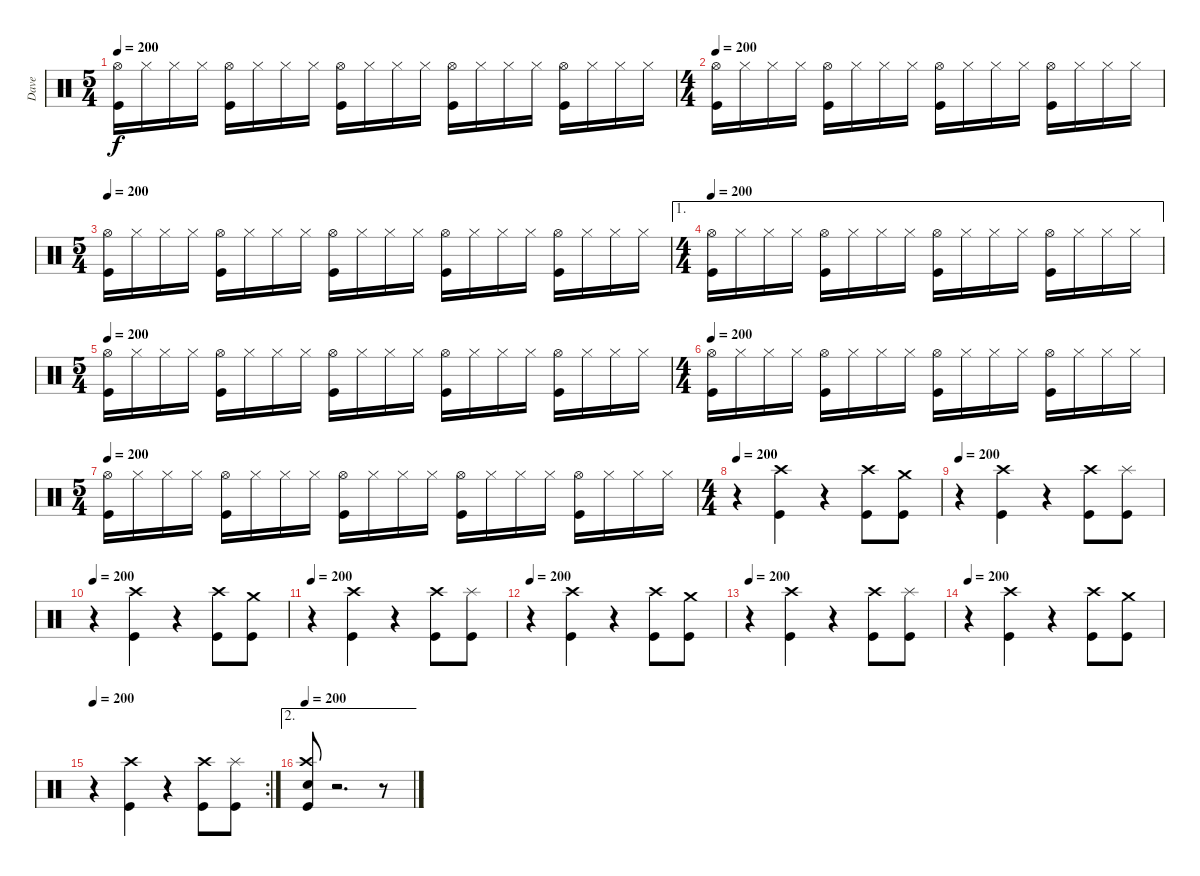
\track ("Dave" "Dave") {instrument percussion}
\staff {score}
\articulation defaults
\ts (5 4)
\tempo 200
\clef neutral
\ks c
("Hi-Hat (open)" "Kick (hit)").16{dy f} "Hi-Hat (closed)".16 "Hi-Hat (closed)".16 "Hi-Hat (closed)".16 ("Hi-Hat (open)" "Kick (hit)").16 "Hi-Hat (closed)".16 "Hi-Hat (closed)".16 "Hi-Hat (closed)".16 ("Hi-Hat (open)" "Kick (hit)").16 "Hi-Hat (closed)".16 "Hi-Hat (closed)".16 "Hi-Hat (closed)".16 ("Hi-Hat (open)" "Kick (hit)").16 "Hi-Hat (closed)".16 "Hi-Hat (closed)".16 "Hi-Hat (closed)".16 ("Hi-Hat (open)" "Kick (hit)").16 "Hi-Hat (closed)".16 "Hi-Hat (closed)".16 "Hi-Hat (closed)".16 |
\ts (4 4)
\tempo 200
("Hi-Hat (open)" "Kick (hit)").16 "Hi-Hat (closed)".16 "Hi-Hat (closed)".16 "Hi-Hat (closed)".16 ("Hi-Hat (open)" "Kick (hit)").16 "Hi-Hat (closed)".16 "Hi-Hat (closed)".16 "Hi-Hat (closed)".16 ("Hi-Hat (open)" "Kick (hit)").16 "Hi-Hat (closed)".16 "Hi-Hat (closed)".16 "Hi-Hat (closed)".16 ("Hi-Hat (open)" "Kick (hit)").16 "Hi-Hat (closed)".16 "Hi-Hat (closed)".16 "Hi-Hat (closed)".16 |
\ts (5 4)
\tempo 200
("Hi-Hat (open)" "Kick (hit)").16 "Hi-Hat (closed)".16 "Hi-Hat (closed)".16 "Hi-Hat (closed)".16 ("Hi-Hat (open)" "Kick (hit)").16 "Hi-Hat (closed)".16 "Hi-Hat (closed)".16 "Hi-Hat (closed)".16 ("Hi-Hat (open)" "Kick (hit)").16 "Hi-Hat (closed)".16 "Hi-Hat (closed)".16 "Hi-Hat (closed)".16 ("Hi-Hat (open)" "Kick (hit)").16 "Hi-Hat (closed)".16 "Hi-Hat (closed)".16 "Hi-Hat (closed)".16 ("Hi-Hat (open)" "Kick (hit)").16 "Hi-Hat (closed)".16 "Hi-Hat (closed)".16 "Hi-Hat (closed)".16 |
\ae 1
\ts (4 4)
\tempo 200
("Hi-Hat (open)" "Kick (hit)").16 "Hi-Hat (closed)".16 "Hi-Hat (closed)".16 "Hi-Hat (closed)".16 ("Hi-Hat (open)" "Kick (hit)").16 "Hi-Hat (closed)".16 "Hi-Hat (closed)".16 "Hi-Hat (closed)".16 ("Hi-Hat (open)" "Kick (hit)").16 "Hi-Hat (closed)".16 "Hi-Hat (closed)".16 "Hi-Hat (closed)".16 ("Hi-Hat (open)" "Kick (hit)").16 "Hi-Hat (closed)".16 "Hi-Hat (closed)".16 "Hi-Hat (closed)".16 |
\ts (5 4)
\tempo 200
("Hi-Hat (open)" "Kick (hit)").16 "Hi-Hat (closed)".16 "Hi-Hat (closed)".16 "Hi-Hat (closed)".16 ("Hi-Hat (open)" "Kick (hit)").16 "Hi-Hat (closed)".16 "Hi-Hat (closed)".16 "Hi-Hat (closed)".16 ("Hi-Hat (open)" "Kick (hit)").16 "Hi-Hat (closed)".16 "Hi-Hat (closed)".16 "Hi-Hat (closed)".16 ("Hi-Hat (open)" "Kick (hit)").16 "Hi-Hat (closed)".16 "Hi-Hat (closed)".16 "Hi-Hat (closed)".16 ("Hi-Hat (open)" "Kick (hit)").16 "Hi-Hat (closed)".16 "Hi-Hat (closed)".16 "Hi-Hat (closed)".16 |
\ts (4 4)
\tempo 200
("Hi-Hat (open)" "Kick (hit)").16 "Hi-Hat (closed)".16 "Hi-Hat (closed)".16 "Hi-Hat (closed)".16 ("Hi-Hat (open)" "Kick (hit)").16 "Hi-Hat (closed)".16 "Hi-Hat (closed)".16 "Hi-Hat (closed)".16 ("Hi-Hat (open)" "Kick (hit)").16 "Hi-Hat (closed)".16 "Hi-Hat (closed)".16 "Hi-Hat (closed)".16 ("Hi-Hat (open)" "Kick (hit)").16 "Hi-Hat (closed)".16 "Hi-Hat (closed)".16 "Hi-Hat (closed)".16 |
\ts (5 4)
\tempo 200
("Hi-Hat (open)" "Kick (hit)").16 "Hi-Hat (closed)".16 "Hi-Hat (closed)".16 "Hi-Hat (closed)".16 ("Hi-Hat (open)" "Kick (hit)").16 "Hi-Hat (closed)".16 "Hi-Hat (closed)".16 "Hi-Hat (closed)".16 ("Hi-Hat (open)" "Kick (hit)").16 "Hi-Hat (closed)".16 "Hi-Hat (closed)".16 "Hi-Hat (closed)".16 ("Hi-Hat (open)" "Kick (hit)").16 "Hi-Hat (closed)".16 "Hi-Hat (closed)".16 "Hi-Hat (closed)".16 ("Hi-Hat (open)" "Kick (hit)").16 "Hi-Hat (closed)".16 "Hi-Hat (closed)".16 "Hi-Hat (closed)".16 |
\ts (4 4)
\tempo 200
r.4 ("Crash high (hit)" "Kick (hit)").4 r.4 ("Crash high (hit)" "Kick (hit)").8 ("Crash medium (hit)" "Kick (hit)").8 |
\tempo 200
r.4 ("Crash high (hit)" "Kick (hit)").4 r.4 ("Crash high (hit)" "Kick (hit)").8 ("Splash (hit)" "Kick (hit)").8 |
\tempo 200
r.4 ("Crash high (hit)" "Kick (hit)").4 r.4 ("Crash high (hit)" "Kick (hit)").8 ("Crash medium (hit)" "Kick (hit)").8 |
\tempo 200
r.4 ("Crash high (hit)" "Kick (hit)").4 r.4 ("Crash high (hit)" "Kick (hit)").8 ("Splash (hit)" "Kick (hit)").8 |
\tempo 200
r.4 ("Crash high (hit)" "Kick (hit)").4 r.4 ("Crash high (hit)" "Kick (hit)").8 ("Crash medium (hit)" "Kick (hit)").8 |
\tempo 200
r.4 ("Crash high (hit)" "Kick (hit)").4 r.4 ("Crash high (hit)" "Kick (hit)").8 ("Splash (hit)" "Kick (hit)").8 |
\tempo 200
r.4 ("Crash high (hit)" "Kick (hit)").4 r.4 ("Crash high (hit)" "Kick (hit)").8 ("Crash medium (hit)" "Kick (hit)").8 |
\rc 2
\tempo 200
r.4 ("Crash high (hit)" "Kick (hit)").4 r.4 ("Crash high (hit)" "Kick (hit)").8 ("Splash (hit)" "Kick (hit)").8 |
\ae 2
\tempo 200
("Snare (hit) 2" "Crash high (hit)" "Kick (hit)").8 r.2{d} r.8
